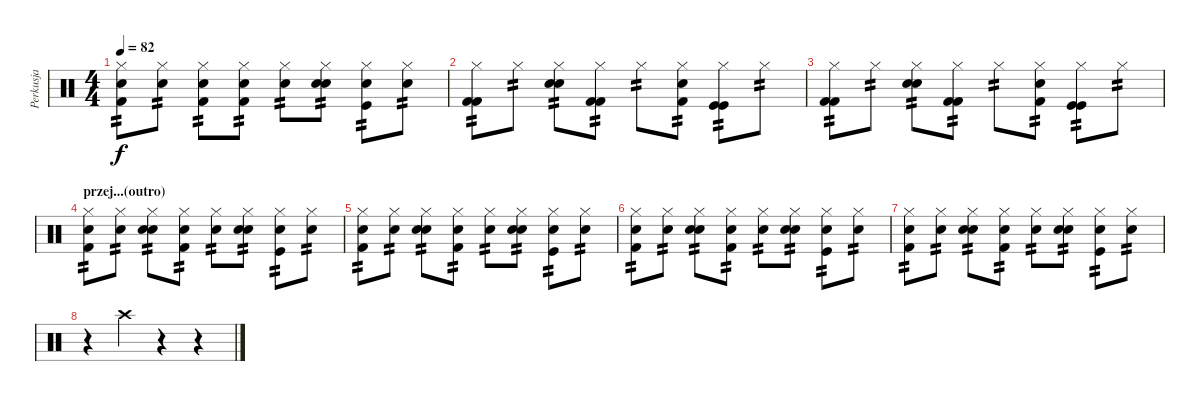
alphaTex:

\track ("Perkusja" "Perkusja") {instrument percussion}
\staff {score}
\articulation defaults
\ts (4 4)
\tempo 82
\clef neutral
\ks c
("Hi-Hat (closed)" "Electric Snare (hit)" "Kick (hit) 2").8{tp 2 dy f} ("Hi-Hat (closed)" "Electric Snare (hit)").8{tp 2} ("Hi-Hat (closed)" "Electric Snare (hit)" "Kick (hit) 2").8{tp 2} ("Hi-Hat (closed)" "Electric Snare (hit)" "Kick (hit) 2").8{tp 2} ("Hi-Hat (closed)" "Electric Snare (hit)").8{tp 2} ("Hi-Hat (closed)" "Electric Snare (hit)" "Electric Snare (hit)").8{tp 2} ("Hi-Hat (closed)" "Electric Snare (hit)" "Kick (hit)").8{tp 2} ("Hi-Hat (closed)" "Electric Snare (hit)").8{tp 2} |
("Hi-Hat (closed)" "Kick (hit) 2" "Kick (hit) 2").8{tp 2} "Hi-Hat (closed)".8{tp 2} ("Hi-Hat (closed)" "Electric Snare (hit)" "Electric Snare (hit)").8{tp 2} ("Hi-Hat (closed)" "Kick (hit) 2" "Kick (hit) 2").8{tp 2} "Hi-Hat (closed)".8{tp 2} ("Hi-Hat (closed)" "Snare (hit) 2" "Kick (hit) 2").8{tp 2} ("Hi-Hat (closed)" "Kick (hit)" "Kick (hit)").8{tp 2} "Hi-Hat (closed)".8{tp 2} |
("Hi-Hat (closed)" "Kick (hit) 2" "Kick (hit) 2").8{tp 2} "Hi-Hat (closed)".8{tp 2} ("Hi-Hat (closed)" "Electric Snare (hit)" "Electric Snare (hit)").8{tp 2} ("Hi-Hat (closed)" "Kick (hit) 2" "Kick (hit) 2").8{tp 2} "Hi-Hat (closed)".8{tp 2} ("Hi-Hat (closed)" "Snare (hit) 2" "Kick (hit) 2").8{tp 2} ("Hi-Hat (closed)" "Kick (hit)" "Kick (hit)").8{tp 2} "Hi-Hat (closed)".8{tp 2} |
\section ("" "przej...(outro)")
("Hi-Hat (closed)" "Electric Snare (hit)" "Kick (hit) 2").8{tp 2} ("Hi-Hat (closed)" "Electric Snare (hit)").8{tp 2} ("Hi-Hat (closed)" "Electric Snare (hit)" "Electric Snare (hit)").8{tp 2} ("Hi-Hat (closed)" "Electric Snare (hit)" "Kick (hit) 2").8{tp 2} ("Hi-Hat (closed)" "Electric Snare (hit)").8{tp 2} ("Hi-Hat (closed)" "Electric Snare (hit)" "Electric Snare (hit)").8{tp 2} ("Hi-Hat (closed)" "Electric Snare (hit)" "Kick (hit)").8{tp 2} ("Hi-Hat (closed)" "Electric Snare (hit)").8{tp 2} |
("Hi-Hat (closed)" "Electric Snare (hit)" "Kick (hit) 2").8{tp 2} ("Hi-Hat (closed)" "Electric Snare (hit)").8{tp 2} ("Hi-Hat (closed)" "Electric Snare (hit)" "Electric Snare (hit)").8{tp 2} ("Hi-Hat (closed)" "Electric Snare (hit)" "Kick (hit) 2").8{tp 2} ("Hi-Hat (closed)" "Electric Snare (hit)").8{tp 2} ("Hi-Hat (closed)" "Electric Snare (hit)" "Electric Snare (hit)").8{tp 2} ("Hi-Hat (closed)" "Electric Snare (hit)" "Kick (hit)").8{tp 2} ("Hi-Hat (closed)" "Electric Snare (hit)").8{tp 2} |
("Hi-Hat (closed)" "Electric Snare (hit)" "Kick (hit) 2").8{tp 2} ("Hi-Hat (closed)" "Electric Snare (hit)").8{tp 2} ("Hi-Hat (closed)" "Electric Snare (hit)" "Electric Snare (hit)").8{tp 2} ("Hi-Hat (closed)" "Electric Snare (hit)" "Kick (hit) 2").8{tp 2} ("Hi-Hat (closed)" "Electric Snare (hit)").8{tp 2} ("Hi-Hat (closed)" "Electric Snare (hit)" "Electric Snare (hit)").8{tp 2} ("Hi-Hat (closed)" "Electric Snare (hit)" "Kick (hit)").8{tp 2} ("Hi-Hat (closed)" "Electric Snare (hit)").8{tp 2} |
("Hi-Hat (closed)" "Electric Snare (hit)" "Kick (hit) 2").8{tp 2} ("Hi-Hat (closed)" "Electric Snare (hit)").8{tp 2} ("Hi-Hat (closed)" "Electric Snare (hit)" "Electric Snare (hit)").8{tp 2} ("Hi-Hat (closed)" "Electric Snare (hit)" "Kick (hit) 2").8{tp 2} ("Hi-Hat (closed)" "Electric Snare (hit)").8{tp 2} ("Hi-Hat (closed)" "Electric Snare (hit)" "Electric Snare (hit)").8{tp 2} ("Hi-Hat (closed)" "Electric Snare (hit)" "Kick (hit)").8{tp 2} ("Hi-Hat (closed)" "Electric Snare (hit)").8{tp 2} |
r.4 "Crash high (hit)".4 r.4 r.4
